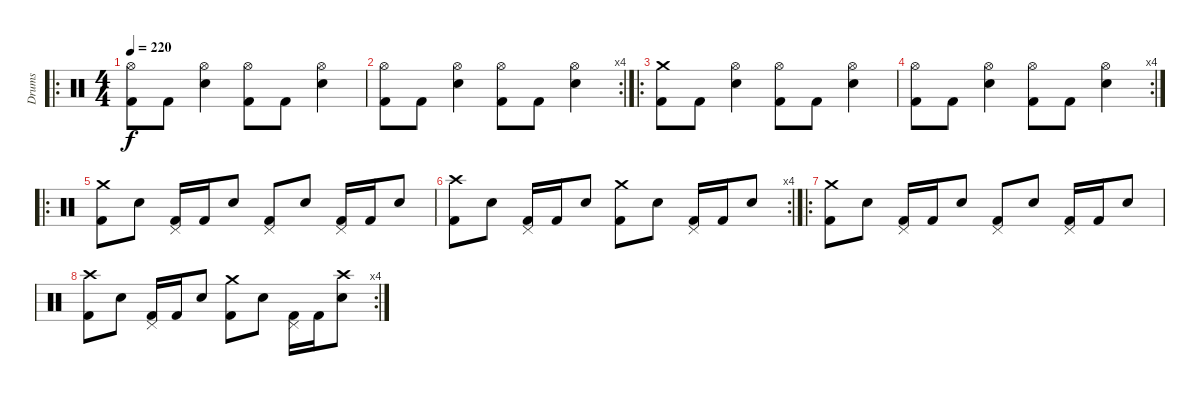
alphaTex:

\track ("Drums" "Drums") {instrument percussion}
\staff {score}
\articulation defaults
\ro
\ts (4 4)
\tempo 220
\clef neutral
\ks c
("Hi-Hat (open)" "Kick (hit) 2").8{dy f} "Kick (hit) 2".8 ("Electric Snare (hit)" "Hi-Hat (open)").4 ("Hi-Hat (open)" "Kick (hit) 2").8 "Kick (hit) 2".8 ("Electric Snare (hit)" "Hi-Hat (open)").4 |
\rc 4
("Hi-Hat (open)" "Kick (hit) 2").8 "Kick (hit) 2".8 ("Electric Snare (hit)" "Hi-Hat (open)").4 ("Hi-Hat (open)" "Kick (hit) 2").8 "Kick (hit) 2".8 ("Electric Snare (hit)" "Hi-Hat (open)").4 |
\ro
("Crash medium (hit)" "Kick (hit) 2").8 "Kick (hit) 2".8 ("Electric Snare (hit)" "Hi-Hat (open)").4 ("Hi-Hat (open)" "Kick (hit) 2").8 "Kick (hit) 2".8 ("Electric Snare (hit)" "Hi-Hat (open)").4 |
\rc 4
("Hi-Hat (open)" "Kick (hit) 2").8 "Kick (hit) 2".8 ("Electric Snare (hit)" "Hi-Hat (open)").4 ("Hi-Hat (open)" "Kick (hit) 2").8 "Kick (hit) 2".8 ("Electric Snare (hit)" "Hi-Hat (open)").4 |
\ro
("Crash medium (hit)" "Kick (hit) 2").8 "Electric Snare (hit)".8 ("Pedal Hi-Hat (hit)" "Kick (hit) 2").16 "Kick (hit) 2".16 "Electric Snare (hit)".8 ("Pedal Hi-Hat (hit)" "Kick (hit) 2").8 "Electric Snare (hit)".8 ("Pedal Hi-Hat (hit)" "Kick (hit) 2").16 "Kick (hit) 2".16 "Electric Snare (hit)".8 |
\rc 4
("Crash high (hit)" "Kick (hit) 2").8 "Electric Snare (hit)".8 ("Pedal Hi-Hat (hit)" "Kick (hit) 2").16 "Kick (hit) 2".16 "Electric Snare (hit)".8 ("Crash medium (hit)" "Kick (hit) 2").8 "Electric Snare (hit)".8 ("Pedal Hi-Hat (hit)" "Kick (hit) 2").16 "Kick (hit) 2".16 "Electric Snare (hit)".8 |
\ro
("Crash medium (hit)" "Kick (hit) 2").8 "Electric Snare (hit)".8 ("Pedal Hi-Hat (hit)" "Kick (hit) 2").16 "Kick (hit) 2".16 "Electric Snare (hit)".8 ("Pedal Hi-Hat (hit)" "Kick (hit) 2").8 "Electric Snare (hit)".8 ("Pedal Hi-Hat (hit)" "Kick (hit) 2").16 "Kick (hit) 2".16 "Electric Snare (hit)".8 |
\rc 4
("Crash high (hit)" "Kick (hit) 2").8 "Electric Snare (hit)".8 ("Pedal Hi-Hat (hit)" "Kick (hit) 2").16 "Kick (hit) 2".16 "Electric Snare (hit)".8 ("Crash medium (hit)" "Kick (hit) 2").8 "Electric Snare (hit)".8 ("Pedal Hi-Hat (hit)" "Kick (hit) 2").16 "Kick (hit) 2".16 ("Crash high (hit)" "Electric Snare (hit)").8
